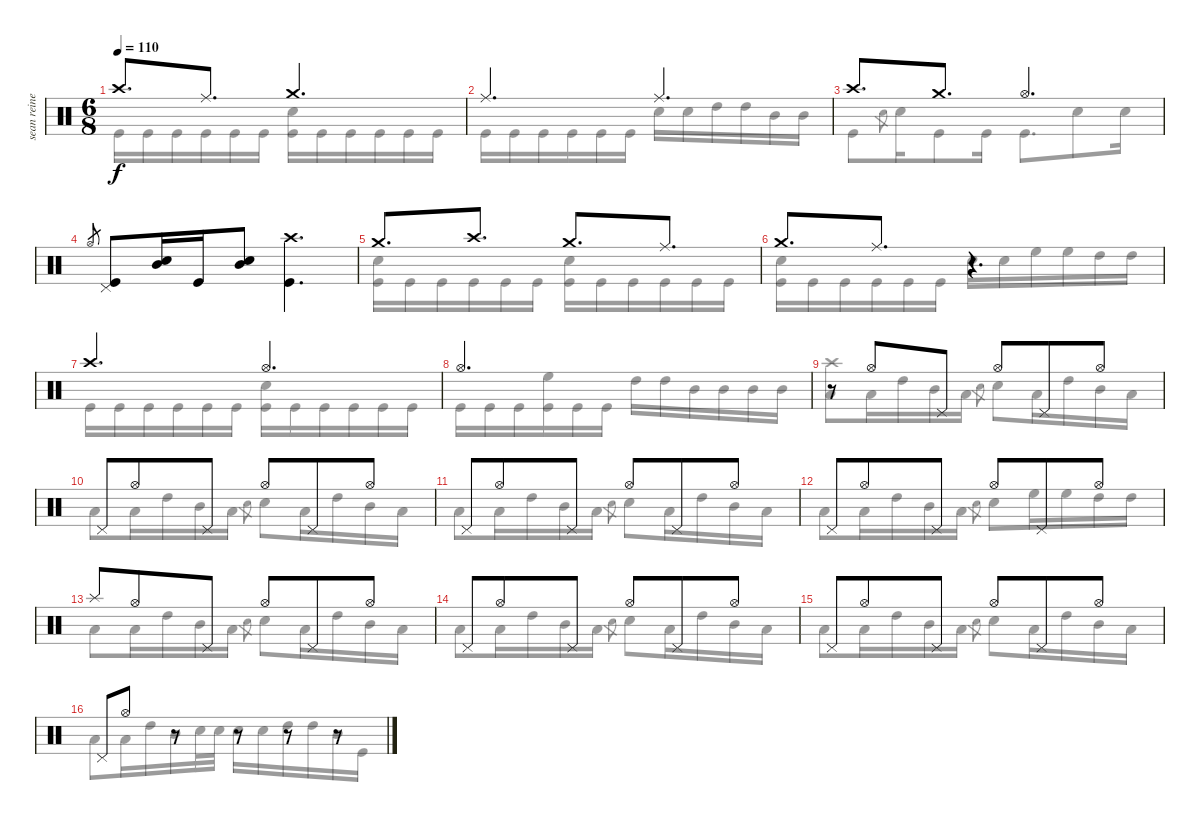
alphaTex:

\track ("sean reinert" "sean reine") {instrument percussion}
\staff {score}
\articulation defaults
\voice
\ts (6 8)
\tempo 110
\clef neutral
\ks c "Crash high (hit)".8{d dy f} "Ride (middle)".8{d} "Crash medium (hit)".4{d}
|
"Ride (middle)".4{d} "Ride (middle)".4{d} |
"Crash high (hit)".8{d} "Crash medium (hit)".8{d} "Hi-Hat (open)".4{d} |
"Hi-Hat (open)".8{gr} ("Pedal Hi-Hat (hit)" "Kick (hit)").8 ("Mid Tom (hit)" "Snare (hit) 2").16 "Kick (hit)".16 ("Mid Tom (hit)" "Snare (hit) 2").8 ("Crash high (hit)" "Kick (hit)").4{d} |
"Crash medium (hit)".8{d} "Crash high (hit)".8{d} "Crash medium (hit)".8{d} "Ride (middle)".8{d} |
"Crash medium (hit)".8{d} "Ride (middle)".8{d} r.4{d} |
"Crash high (hit)".4{d} "Hi-Hat (open)".4{d} |
"Hi-Hat (open)".2{d} |
r.8 "Hi-Hat (open)".8 "Pedal Hi-Hat (hit)".8 "Hi-Hat (open)".8 "Pedal Hi-Hat (hit)".8 "Hi-Hat (open)".8 |
"Pedal Hi-Hat (hit)".8 "Hi-Hat (open)".8 "Pedal Hi-Hat (hit)".8 "Hi-Hat (open)".8 "Pedal Hi-Hat (hit)".8 "Hi-Hat (open)".8 |
"Pedal Hi-Hat (hit)".8 "Hi-Hat (open)".8 "Pedal Hi-Hat (hit)".8 "Hi-Hat (open)".8 "Pedal Hi-Hat (hit)".8 "Hi-Hat (open)".8 |
"Pedal Hi-Hat (hit)".8 "Hi-Hat (open)".8 "Pedal Hi-Hat (hit)".8 "Hi-Hat (open)".8 "Pedal Hi-Hat (hit)".8 "Hi-Hat (open)".8 |
"Splash (hit)".8 "Hi-Hat (open)".8 "Pedal Hi-Hat (hit)".8 "Hi-Hat (open)".8 "Pedal Hi-Hat (hit)".8 "Hi-Hat (open)".8 |
"Pedal Hi-Hat (hit)".8 "Hi-Hat (open)".8 "Pedal Hi-Hat (hit)".8 "Hi-Hat (open)".8 "Pedal Hi-Hat (hit)".8 "Hi-Hat (open)".8 |
"Pedal Hi-Hat (hit)".8 "Hi-Hat (open)".8 "Pedal Hi-Hat (hit)".8 "Hi-Hat (open)".8 "Pedal Hi-Hat (hit)".8 "Hi-Hat (open)".8 |
"Pedal Hi-Hat (hit)".8 "Hi-Hat (open)".8 r.8 r.8 r.8 r.8
\voice
\clef neutral
\ottava regular
\simile none
\ks c "Kick (hit)".16{dy f} "Kick (hit)".16 "Kick (hit)".16 "Kick (hit)".16 "Kick (hit)".16 "Kick (hit)".16
("Snare (hit) 2" "Kick (hit)").16 "Kick (hit)".16 "Kick (hit)".16 "Kick (hit)".16 "Kick (hit)".16 "Kick (hit)".16 |
"Kick (hit)".16 "Kick (hit)".16 "Kick (hit)".16 "Kick (hit)".16 "Kick (hit)".16 "Kick (hit)".16 "Snare (hit) 2".16 "Snare (hit) 2".16 "High Tom (hit)".16 "High Tom (hit)".16 "Mid Tom (hit)".16 "Mid Tom (hit)".16 |
"Kick (hit)".8 "Snare (hit) 2".8{gr} "Snare (hit) 2".16 "Kick (hit)".8 "Kick (hit)".16 "Kick (hit)".8{d} "Snare (hit) 2".8 "Snare (hit) 2".16 |
|
("Snare (hit) 2" "Kick (hit)").16 "Kick (hit)".16 "Kick (hit)".16 "Kick (hit)".16 "Kick (hit)".16 "Kick (hit)".16 ("Snare (hit) 2" "Kick (hit)").16 "Kick (hit)".16 "Kick (hit)".16 "Kick (hit)".16 "Kick (hit)".16 "Kick (hit)".16 |
("Snare (hit) 2" "Kick (hit)").16 "Kick (hit)".16 "Kick (hit)".16 "Kick (hit)".16 "Kick (hit)".16 "Kick (hit)".16 "Snare (hit) 2".16 "Snare (hit) 2".16 "High Floor Tom (hit)".16 "High Floor Tom (hit)".16 "High Tom (hit)".16 "High Tom (hit)".16 |
"Kick (hit)".16 "Kick (hit)".16 "Kick (hit)".16 "Kick (hit)".16 "Kick (hit)".16 "Kick (hit)".16 ("Snare (hit) 2" "Kick (hit)").16 "Kick (hit)".16 "Kick (hit)".16 "Kick (hit)".16 "Kick (hit)".16 "Kick (hit)".16 |
"Kick (hit)".16 "Kick (hit)".16 "Kick (hit)".16 ("High Floor Tom (hit)" "Kick (hit)").16 "Kick (hit)".16 "Kick (hit)".16 "High Tom (hit)".16 "High Tom (hit)".16 "Mid Tom (hit)".16 "Mid Tom (hit)".16 "Mid Tom (hit)".16 "Mid Tom (hit)".16 |
("Crash high (hit)" "Low Tom (hit)").8 "Low Tom (hit)".16 "High Tom (hit)".16 "Mid Tom (hit)".16 "Low Tom (hit)".16 "Snare (hit) 2".8{gr} "Snare (hit) 2".8 "Low Tom (hit)".16 "High Tom (hit)".16 "Mid Tom (hit)".16 "Low Tom (hit)".16 |
"Low Tom (hit)".8 "Low Tom (hit)".16 "High Tom (hit)".16 "Mid Tom (hit)".16 "Low Tom (hit)".16 "Snare (hit) 2".8{gr} "Snare (hit) 2".8 "Low Tom (hit)".16 "High Tom (hit)".16 "Mid Tom (hit)".16 "Low Tom (hit)".16 |
"Low Tom (hit)".8 "Low Tom (hit)".16 "High Tom (hit)".16 "Mid Tom (hit)".16 "Low Tom (hit)".16 "Snare (hit) 2".8{gr} "Snare (hit) 2".8 "Low Tom (hit)".16 "High Tom (hit)".16 "Mid Tom (hit)".16 "Low Tom (hit)".16 |
"Low Tom (hit)".8 "Low Tom (hit)".16 "High Tom (hit)".16 "Mid Tom (hit)".16 "Low Tom (hit)".16 "Snare (hit) 2".8{gr} "Snare (hit) 2".8 "High Floor Tom (hit)".16 "High Floor Tom (hit)".16 "High Tom (hit)".16 "High Tom (hit)".16 |
"Low Tom (hit)".8 "Low Tom (hit)".16 "High Tom (hit)".16 "Mid Tom (hit)".16 "Low Tom (hit)".16 "Snare (hit) 2".8{gr} "Snare (hit) 2".8 "Low Tom (hit)".16 "High Tom (hit)".16 "Mid Tom (hit)".16 "Low Tom (hit)".16 |
"Low Tom (hit)".8 "Low Tom (hit)".16 "High Tom (hit)".16 "Mid Tom (hit)".16 "Low Tom (hit)".16 "Snare (hit) 2".8{gr} "Snare (hit) 2".8 "Low Tom (hit)".16 "High Tom (hit)".16 "Mid Tom (hit)".16 "Low Tom (hit)".16 |
"Low Tom (hit)".8 "Low Tom (hit)".16 "High Tom (hit)".16 "Mid Tom (hit)".16 "Low Tom (hit)".16 "Snare (hit) 2".8{gr} "Snare (hit) 2".8 "Low Tom (hit)".16 "High Tom (hit)".16 "Mid Tom (hit)".16 "Low Tom (hit)".16 |
"Low Tom (hit)".8 "Low Tom (hit)".16 "High Tom (hit)".16 "Mid Tom (hit)".16 "Snare (hit) 2".32 "Snare (hit) 2".32 "Snare (hit) 2".16 "Snare (hit) 2".16 "High Tom (hit)".16 "High Tom (hit)".16 "Mid Tom (hit)".16 "Kick (hit)".16
